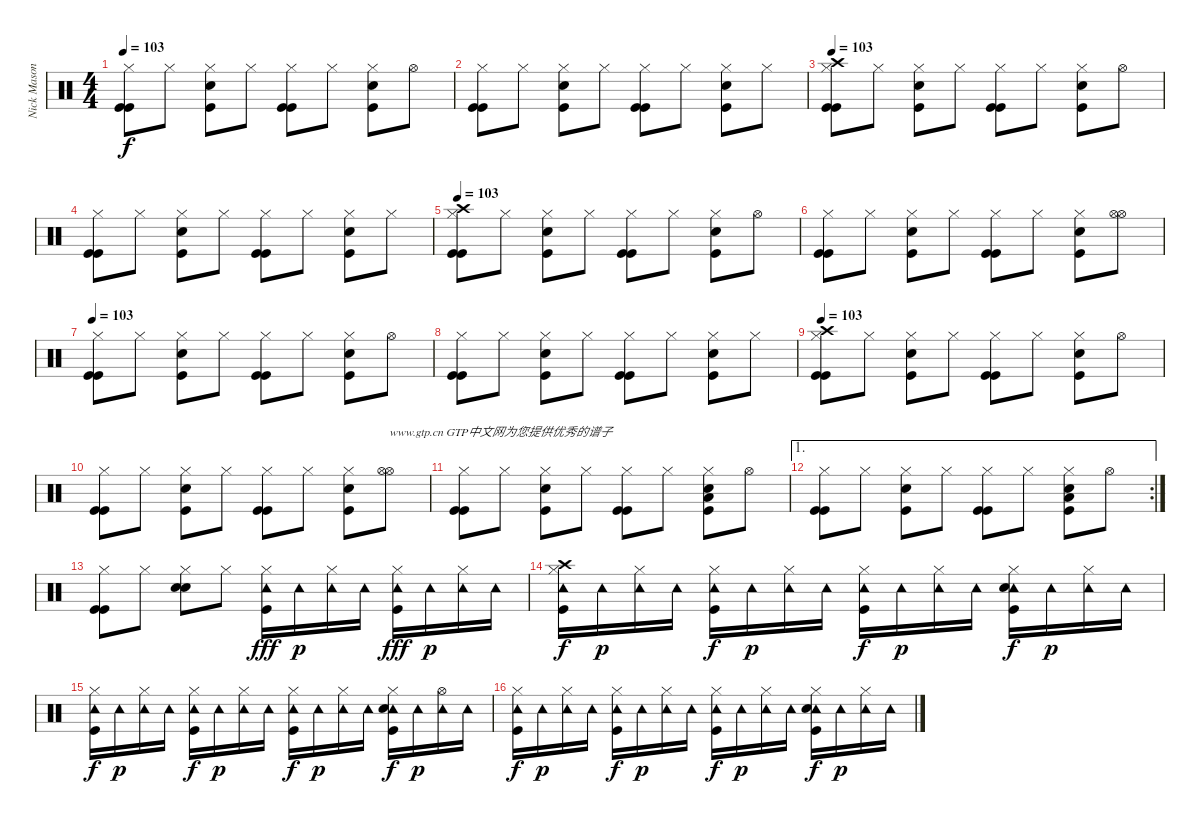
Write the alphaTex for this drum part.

\track ("Nick Mason" "Nick Mason") {instrument percussion}
\staff {score}
\articulation defaults
\ts (4 4)
\tempo 103
\clef neutral
\ks c
("Hi-Hat (closed)" "Kick (hit)" "Kick (hit)").8{dy f} "Hi-Hat (closed)".8 ("Hi-Hat (closed)" "Kick (hit)" "Snare (hit) 2").8 "Hi-Hat (closed)".8 ("Hi-Hat (closed)" "Kick (hit)" "Kick (hit)").8 "Hi-Hat (closed)".8 ("Hi-Hat (closed)" "Kick (hit)" "Snare (hit) 2").8 "Hi-Hat (open)".8 |
("Hi-Hat (closed)" "Kick (hit)" "Kick (hit)").8 "Hi-Hat (closed)".8 ("Hi-Hat (closed)" "Kick (hit)" "Snare (hit) 2").8 "Hi-Hat (closed)".8 ("Hi-Hat (closed)" "Kick (hit)" "Kick (hit)").8 "Hi-Hat (closed)".8 ("Hi-Hat (closed)" "Kick (hit)" "Snare (hit) 2").8 "Hi-Hat (closed)".8 |
\tempo 103
("Hi-Hat (closed)" "Kick (hit)" "Kick (hit)" "Crash high (hit)").8 "Hi-Hat (closed)".8 ("Hi-Hat (closed)" "Kick (hit)" "Snare (hit) 2").8 "Hi-Hat (closed)".8 ("Hi-Hat (closed)" "Kick (hit)" "Kick (hit)").8 "Hi-Hat (closed)".8 ("Hi-Hat (closed)" "Kick (hit)" "Snare (hit) 2").8 "Hi-Hat (open)".8 |
("Hi-Hat (closed)" "Kick (hit)" "Kick (hit)").8 "Hi-Hat (closed)".8 ("Hi-Hat (closed)" "Kick (hit)" "Snare (hit) 2").8 "Hi-Hat (closed)".8 ("Hi-Hat (closed)" "Kick (hit)" "Kick (hit)").8 "Hi-Hat (closed)".8 ("Hi-Hat (closed)" "Kick (hit)" "Snare (hit) 2").8 "Hi-Hat (closed)".8 |
\tempo 103
("Hi-Hat (closed)" "Kick (hit)" "Kick (hit)" "Crash high (hit)").8 "Hi-Hat (closed)".8 ("Hi-Hat (closed)" "Kick (hit)" "Snare (hit) 2").8 "Hi-Hat (closed)".8 ("Hi-Hat (closed)" "Kick (hit)" "Kick (hit)").8 "Hi-Hat (closed)".8 ("Hi-Hat (closed)" "Kick (hit)" "Snare (hit) 2").8 "Hi-Hat (open)".8 |
("Hi-Hat (closed)" "Kick (hit)" "Kick (hit)").8 "Hi-Hat (closed)".8 ("Hi-Hat (closed)" "Kick (hit)" "Snare (hit) 2").8 "Hi-Hat (closed)".8 ("Hi-Hat (closed)" "Kick (hit)" "Kick (hit)").8 "Hi-Hat (closed)".8 ("Hi-Hat (closed)" "Kick (hit)" "Snare (hit) 2").8 ("Hi-Hat (open)" "Hi-Hat (open)").8 |
\tempo 103
("Hi-Hat (closed)" "Kick (hit)" "Kick (hit)").8 "Hi-Hat (closed)".8 ("Hi-Hat (closed)" "Kick (hit)" "Snare (hit) 2").8 "Hi-Hat (closed)".8 ("Hi-Hat (closed)" "Kick (hit)" "Kick (hit)").8 "Hi-Hat (closed)".8 ("Hi-Hat (closed)" "Kick (hit)" "Snare (hit) 2").8 "Hi-Hat (open)".8 |
("Hi-Hat (closed)" "Kick (hit)" "Kick (hit)").8 "Hi-Hat (closed)".8 ("Hi-Hat (closed)" "Kick (hit)" "Snare (hit) 2").8 "Hi-Hat (closed)".8 ("Hi-Hat (closed)" "Kick (hit)" "Kick (hit)").8 "Hi-Hat (closed)".8 ("Hi-Hat (closed)" "Kick (hit)" "Snare (hit) 2").8 "Hi-Hat (closed)".8 |
\tempo 103
("Hi-Hat (closed)" "Kick (hit)" "Kick (hit)" "Crash high (hit)").8 "Hi-Hat (closed)".8 ("Hi-Hat (closed)" "Kick (hit)" "Snare (hit) 2").8 "Hi-Hat (closed)".8 ("Hi-Hat (closed)" "Kick (hit)" "Kick (hit)").8 "Hi-Hat (closed)".8 ("Hi-Hat (closed)" "Kick (hit)" "Snare (hit) 2").8 "Hi-Hat (open)".8 |
("Hi-Hat (closed)" "Kick (hit)" "Kick (hit)").8 "Hi-Hat (closed)".8 ("Hi-Hat (closed)" "Kick (hit)" "Snare (hit) 2").8 "Hi-Hat (closed)".8 ("Hi-Hat (closed)" "Kick (hit)" "Kick (hit)").8 "Hi-Hat (closed)".8 ("Hi-Hat (closed)" "Kick (hit)" "Snare (hit) 2").8 ("Hi-Hat (open)" "Hi-Hat (open)").8{txt "www.gtp.cn GTP中文网为您提供优秀的谱子"} |
("Hi-Hat (closed)" "Kick (hit)" "Kick (hit)").8 "Hi-Hat (closed)".8 ("Hi-Hat (closed)" "Kick (hit)" "Snare (hit) 2").8 "Hi-Hat (closed)".8 ("Hi-Hat (closed)" "Kick (hit)" "Kick (hit)").8 "Hi-Hat (closed)".8 ("Hi-Hat (closed)" "Kick (hit)" "Snare (hit) 2" "Low Tom (hit)").8 "Hi-Hat (open)".8 |
\ae 1
\rc 2
("Hi-Hat (closed)" "Kick (hit)" "Kick (hit)").8 "Hi-Hat (closed)".8 ("Hi-Hat (closed)" "Kick (hit)" "Snare (hit) 2").8 "Hi-Hat (closed)".8 ("Hi-Hat (closed)" "Kick (hit)" "Kick (hit)").8 "Hi-Hat (closed)".8 ("Hi-Hat (closed)" "Kick (hit)" "Snare (hit) 2" "Low Tom (hit)").8 "Hi-Hat (open)".8 |
("Hi-Hat (closed)" "Kick (hit)" "Kick (hit)").8 "Hi-Hat (closed)".8 ("Hi-Hat (closed)" "Snare (hit) 2" "Snare (hit) 2").8 "Hi-Hat (closed)".8 ("Tambourine (hit)" "Kick (hit)" "Hi-Hat (closed)").16{dy fff} "Tambourine (hit)".16{dy p} ("Tambourine (hit)" "Hi-Hat (closed)").16 "Tambourine (hit)".16 ("Tambourine (hit)" "Kick (hit)" "Hi-Hat (closed)").16{dy fff} "Tambourine (hit)".16{dy p} ("Tambourine (hit)" "Hi-Hat (closed)").16 "Tambourine (hit)".16 |
("Tambourine (hit)" "Kick (hit)" "Hi-Hat (closed)" "Crash high (hit)").16{dy f} "Tambourine (hit)".16{dy p} ("Tambourine (hit)" "Hi-Hat (closed)").16 "Tambourine (hit)".16 ("Tambourine (hit)" "Kick (hit)" "Hi-Hat (closed)").16{dy f} "Tambourine (hit)".16{dy p} ("Tambourine (hit)" "Hi-Hat (closed)").16 "Tambourine (hit)".16 ("Tambourine (hit)" "Kick (hit)" "Hi-Hat (closed)").16{dy f} "Tambourine (hit)".16{dy p} ("Tambourine (hit)" "Hi-Hat (closed)").16 "Tambourine (hit)".16 ("Tambourine (hit)" "Kick (hit)" "Snare (hit) 2" "Hi-Hat (closed)").16{dy f} "Tambourine (hit)".16{dy p} ("Tambourine (hit)" "Hi-Hat (closed)").16 "Tambourine (hit)".16 |
("Tambourine (hit)" "Kick (hit)" "Hi-Hat (closed)").16{dy f} "Tambourine (hit)".16{dy p} ("Tambourine (hit)" "Hi-Hat (closed)").16 "Tambourine (hit)".16 ("Tambourine (hit)" "Kick (hit)" "Hi-Hat (closed)").16{dy f} "Tambourine (hit)".16{dy p} ("Tambourine (hit)" "Hi-Hat (closed)").16 "Tambourine (hit)".16 ("Tambourine (hit)" "Kick (hit)" "Hi-Hat (closed)").16{dy f} "Tambourine (hit)".16{dy p} ("Tambourine (hit)" "Hi-Hat (closed)").16 "Tambourine (hit)".16 ("Tambourine (hit)" "Kick (hit)" "Snare (hit) 2" "Hi-Hat (closed)").16{dy f} "Tambourine (hit)".16{dy p} ("Tambourine (hit)" "Hi-Hat (open)").16 "Tambourine (hit)".16 |
("Tambourine (hit)" "Kick (hit)" "Hi-Hat (closed)").16{dy f} "Tambourine (hit)".16{dy p} ("Tambourine (hit)" "Hi-Hat (closed)").16 "Tambourine (hit)".16 ("Tambourine (hit)" "Kick (hit)" "Hi-Hat (closed)").16{dy f} "Tambourine (hit)".16{dy p} ("Tambourine (hit)" "Hi-Hat (closed)").16 "Tambourine (hit)".16 ("Tambourine (hit)" "Kick (hit)" "Hi-Hat (closed)").16{dy f} "Tambourine (hit)".16{dy p} ("Tambourine (hit)" "Hi-Hat (closed)").16 "Tambourine (hit)".16 ("Tambourine (hit)" "Kick (hit)" "Snare (hit) 2" "Hi-Hat (closed)").16{dy f} "Tambourine (hit)".16{dy p} ("Tambourine (hit)" "Hi-Hat (closed)").16 "Tambourine (hit)".16
